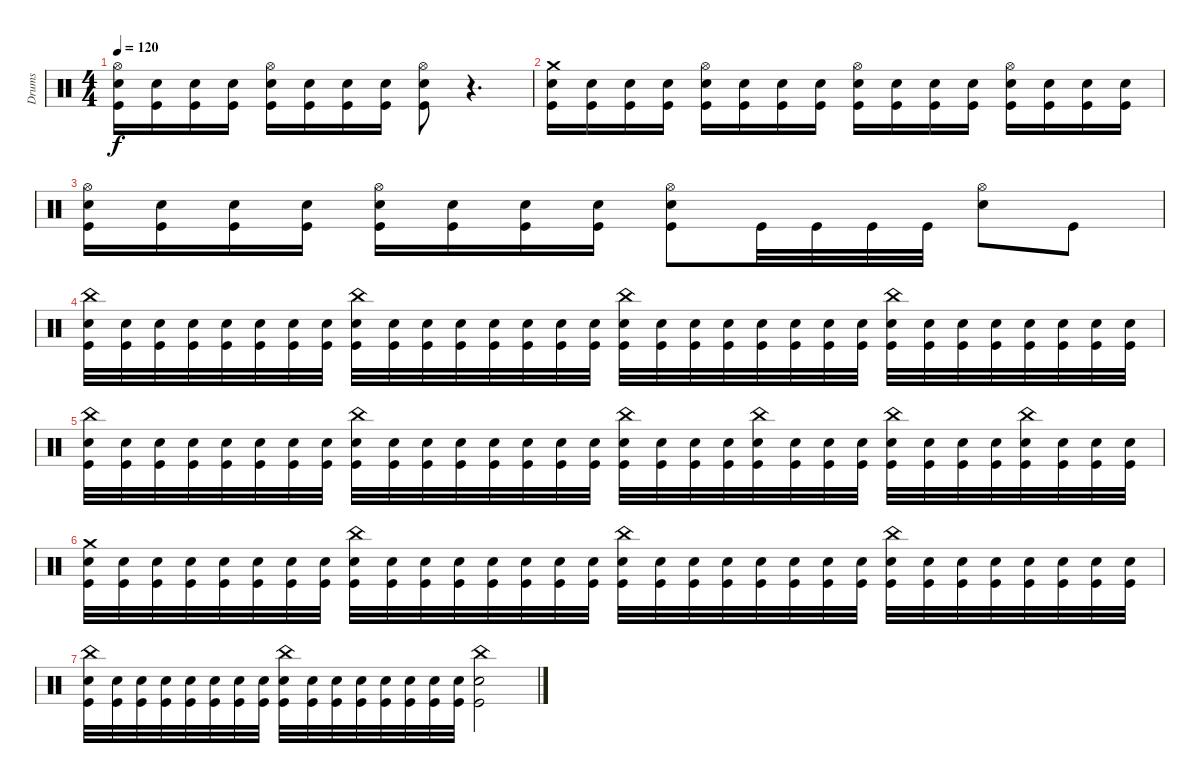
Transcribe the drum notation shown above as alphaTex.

\track ("Drums" "Drums") {instrument percussion}
\staff {score}
\articulation defaults
\ts (4 4)
\tempo 120
\clef neutral
\ks c
("Snare (hit) 2" "Kick (hit)" "Hi-Hat (open)").16{dy f} ("Snare (hit) 2" "Kick (hit)").16 ("Snare (hit) 2" "Kick (hit)").16 ("Snare (hit) 2" "Kick (hit)").16 ("Snare (hit) 2" "Kick (hit)" "Hi-Hat (open)").16 ("Snare (hit) 2" "Kick (hit)").16 ("Snare (hit) 2" "Kick (hit)").16 ("Snare (hit) 2" "Kick (hit)").16 ("Snare (hit) 2" "Kick (hit)" "Hi-Hat (open)").8 r.4{d} |
("Snare (hit) 2" "Kick (hit)" "Crash medium (hit)").16 ("Snare (hit) 2" "Kick (hit)").16 ("Snare (hit) 2" "Kick (hit)").16 ("Snare (hit) 2" "Kick (hit)").16 ("Snare (hit) 2" "Kick (hit)" "Hi-Hat (open)").16 ("Snare (hit) 2" "Kick (hit)").16 ("Snare (hit) 2" "Kick (hit)").16 ("Snare (hit) 2" "Kick (hit)").16 ("Snare (hit) 2" "Kick (hit)" "Hi-Hat (open)").16 ("Snare (hit) 2" "Kick (hit)").16 ("Snare (hit) 2" "Kick (hit)").16 ("Snare (hit) 2" "Kick (hit)").16 ("Snare (hit) 2" "Kick (hit)" "Hi-Hat (open)").16 ("Snare (hit) 2" "Kick (hit)").16 ("Snare (hit) 2" "Kick (hit)").16 ("Snare (hit) 2" "Kick (hit)").16 |
("Snare (hit) 2" "Kick (hit)" "Hi-Hat (open)").16 ("Snare (hit) 2" "Kick (hit)").16 ("Snare (hit) 2" "Kick (hit)").16 ("Snare (hit) 2" "Kick (hit)").16 ("Snare (hit) 2" "Kick (hit)" "Hi-Hat (open)").16 ("Snare (hit) 2" "Kick (hit)").16 ("Snare (hit) 2" "Kick (hit)").16 ("Snare (hit) 2" "Kick (hit)").16 ("Snare (hit) 2" "Kick (hit)" "Hi-Hat (open)").8 "Kick (hit)".32 "Kick (hit)".32 "Kick (hit)".32 "Kick (hit)".32 ("Snare (hit) 2" "Hi-Hat (open)").8 "Kick (hit)".8 |
("Snare (hit) 2" "Kick (hit)" "China (hit)").32 ("Snare (hit) 2" "Kick (hit)").32 ("Kick (hit)" "Snare (hit) 2").32 ("Snare (hit) 2" "Kick (hit)").32 ("Snare (hit) 2" "Kick (hit)").32 ("Snare (hit) 2" "Kick (hit)").32 ("Snare (hit) 2" "Kick (hit)").32 ("Snare (hit) 2" "Kick (hit)").32 ("Snare (hit) 2" "Kick (hit)" "China (hit)").32 ("Snare (hit) 2" "Kick (hit)").32 ("Snare (hit) 2" "Kick (hit)").32 ("Snare (hit) 2" "Kick (hit)").32 ("Snare (hit) 2" "Kick (hit)").32 ("Snare (hit) 2" "Kick (hit)").32 ("Snare (hit) 2" "Kick (hit)").32 ("Snare (hit) 2" "Kick (hit)").32 ("Snare (hit) 2" "Kick (hit)" "China (hit)").32 ("Snare (hit) 2" "Kick (hit)").32 ("Snare (hit) 2" "Kick (hit)").32 ("Snare (hit) 2" "Kick (hit)").32 ("Snare (hit) 2" "Kick (hit)").32 ("Snare (hit) 2" "Kick (hit)").32 ("Snare (hit) 2" "Kick (hit)").32 ("Snare (hit) 2" "Kick (hit)").32 ("Snare (hit) 2" "Kick (hit)" "China (hit)").32 ("Snare (hit) 2" "Kick (hit)").32 ("Snare (hit) 2" "Kick (hit)").32 ("Snare (hit) 2" "Kick (hit)").32 ("Snare (hit) 2" "Kick (hit)").32 ("Snare (hit) 2" "Kick (hit)").32 ("Snare (hit) 2" "Kick (hit)").32 ("Snare (hit) 2" "Kick (hit)").32 |
("Snare (hit) 2" "Kick (hit)" "China (hit)").32 ("Snare (hit) 2" "Kick (hit)").32 ("Snare (hit) 2" "Kick (hit)").32 ("Snare (hit) 2" "Kick (hit)").32 ("Snare (hit) 2" "Kick (hit)").32 ("Snare (hit) 2" "Kick (hit)").32 ("Snare (hit) 2" "Kick (hit)").32 ("Snare (hit) 2" "Kick (hit)").32 ("Snare (hit) 2" "Kick (hit)" "China (hit)").32 ("Snare (hit) 2" "Kick (hit)").32 ("Snare (hit) 2" "Kick (hit)").32 ("Snare (hit) 2" "Kick (hit)").32 ("Snare (hit) 2" "Kick (hit)").32 ("Snare (hit) 2" "Kick (hit)").32 ("Snare (hit) 2" "Kick (hit)").32 ("Snare (hit) 2" "Kick (hit)").32 ("Snare (hit) 2" "Kick (hit)" "China (hit)").32 ("Snare (hit) 2" "Kick (hit)").32 ("Snare (hit) 2" "Kick (hit)").32 ("Snare (hit) 2" "Kick (hit)").32 ("Snare (hit) 2" "Kick (hit)" "China (hit)").32 ("Snare (hit) 2" "Kick (hit)").32 ("Snare (hit) 2" "Kick (hit)").32 ("Snare (hit) 2" "Kick (hit)").32 ("Snare (hit) 2" "Kick (hit)" "China (hit)").32 ("Snare (hit) 2" "Kick (hit)").32 ("Snare (hit) 2" "Kick (hit)").32 ("Snare (hit) 2" "Kick (hit)").32 ("Snare (hit) 2" "Kick (hit)" "China (hit)").32 ("Snare (hit) 2" "Kick (hit)").32 ("Snare (hit) 2" "Kick (hit)").32 ("Snare (hit) 2" "Kick (hit)").32 |
("Snare (hit) 2" "Kick (hit)" "Crash medium (hit)").32 ("Snare (hit) 2" "Kick (hit)").32 ("Snare (hit) 2" "Kick (hit)").32 ("Snare (hit) 2" "Kick (hit)").32 ("Snare (hit) 2" "Kick (hit)").32 ("Snare (hit) 2" "Kick (hit)").32 ("Snare (hit) 2" "Kick (hit)").32 ("Snare (hit) 2" "Kick (hit)").32 ("Snare (hit) 2" "Kick (hit)" "China (hit)").32 ("Snare (hit) 2" "Kick (hit)").32 ("Snare (hit) 2" "Kick (hit)").32 ("Snare (hit) 2" "Kick (hit)").32 ("Snare (hit) 2" "Kick (hit)").32 ("Snare (hit) 2" "Kick (hit)").32 ("Snare (hit) 2" "Kick (hit)").32 ("Snare (hit) 2" "Kick (hit)").32 ("Snare (hit) 2" "Kick (hit)" "China (hit)").32 ("Snare (hit) 2" "Kick (hit)").32 ("Snare (hit) 2" "Kick (hit)").32 ("Snare (hit) 2" "Kick (hit)").32 ("Snare (hit) 2" "Kick (hit)").32 ("Snare (hit) 2" "Kick (hit)").32 ("Snare (hit) 2" "Kick (hit)").32 ("Snare (hit) 2" "Kick (hit)").32 ("Snare (hit) 2" "Kick (hit)" "China (hit)").32 ("Snare (hit) 2" "Kick (hit)").32 ("Snare (hit) 2" "Kick (hit)").32 ("Snare (hit) 2" "Kick (hit)").32 ("Snare (hit) 2" "Kick (hit)").32 ("Snare (hit) 2" "Kick (hit)").32 ("Snare (hit) 2" "Kick (hit)").32 ("Snare (hit) 2" "Kick (hit)").32 |
("Snare (hit) 2" "Kick (hit)" "China (hit)").32 ("Snare (hit) 2" "Kick (hit)").32 ("Snare (hit) 2" "Kick (hit)").32 ("Snare (hit) 2" "Kick (hit)").32 ("Snare (hit) 2" "Kick (hit)").32 ("Snare (hit) 2" "Kick (hit)").32 ("Snare (hit) 2" "Kick (hit)").32 ("Snare (hit) 2" "Kick (hit)").32 ("Snare (hit) 2" "Kick (hit)" "China (hit)").32 ("Snare (hit) 2" "Kick (hit)").32 ("Snare (hit) 2" "Kick (hit)").32 ("Snare (hit) 2" "Kick (hit)").32 ("Snare (hit) 2" "Kick (hit)").32 ("Snare (hit) 2" "Kick (hit)").32 ("Snare (hit) 2" "Kick (hit)").32 ("Snare (hit) 2" "Kick (hit)").32 ("Kick (hit)" "Snare (hit) 2" "China (hit)").2
